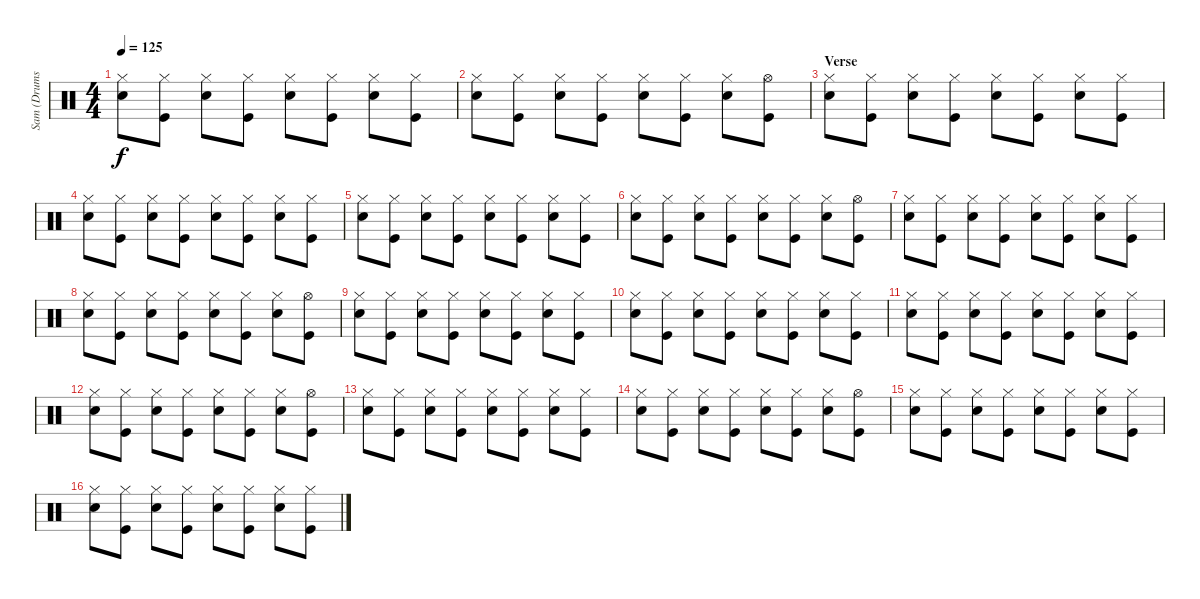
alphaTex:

\track ("Sam (Drums)" "Sam (Drums") {instrument percussion}
\staff {score}
\articulation defaults
\ts (4 4)
\tempo 125
\clef neutral
\ks c
("Hi-Hat (closed)" "Snare (hit) 2").8{dy f} ("Hi-Hat (closed)" "Kick (hit)").8 ("Hi-Hat (closed)" "Snare (hit) 2").8 ("Hi-Hat (closed)" "Kick (hit)").8 ("Hi-Hat (closed)" "Snare (hit) 2").8 ("Hi-Hat (closed)" "Kick (hit)").8 ("Hi-Hat (closed)" "Snare (hit) 2").8 ("Hi-Hat (closed)" "Kick (hit)").8 |
("Hi-Hat (closed)" "Snare (hit) 2").8 ("Hi-Hat (closed)" "Kick (hit)").8 ("Hi-Hat (closed)" "Snare (hit) 2").8 ("Hi-Hat (closed)" "Kick (hit)").8 ("Hi-Hat (closed)" "Snare (hit) 2").8 ("Hi-Hat (closed)" "Kick (hit)").8 ("Hi-Hat (closed)" "Snare (hit) 2").8 ("Hi-Hat (open)" "Kick (hit)").8 |
\section ("" "Verse")
("Hi-Hat (closed)" "Snare (hit) 2").8 ("Hi-Hat (closed)" "Kick (hit)").8 ("Hi-Hat (closed)" "Snare (hit) 2").8 ("Hi-Hat (closed)" "Kick (hit)").8 ("Hi-Hat (closed)" "Snare (hit) 2").8 ("Hi-Hat (closed)" "Kick (hit)").8 ("Hi-Hat (closed)" "Snare (hit) 2").8 ("Hi-Hat (closed)" "Kick (hit)").8 |
("Hi-Hat (closed)" "Snare (hit) 2").8 ("Hi-Hat (closed)" "Kick (hit)").8 ("Hi-Hat (closed)" "Snare (hit) 2").8 ("Hi-Hat (closed)" "Kick (hit)").8 ("Hi-Hat (closed)" "Snare (hit) 2").8 ("Hi-Hat (closed)" "Kick (hit)").8 ("Hi-Hat (closed)" "Snare (hit) 2").8 ("Hi-Hat (closed)" "Kick (hit)").8 |
("Hi-Hat (closed)" "Snare (hit) 2").8 ("Hi-Hat (closed)" "Kick (hit)").8 ("Hi-Hat (closed)" "Snare (hit) 2").8 ("Hi-Hat (closed)" "Kick (hit)").8 ("Hi-Hat (closed)" "Snare (hit) 2").8 ("Hi-Hat (closed)" "Kick (hit)").8 ("Hi-Hat (closed)" "Snare (hit) 2").8 ("Hi-Hat (closed)" "Kick (hit)").8 |
("Hi-Hat (closed)" "Snare (hit) 2").8 ("Hi-Hat (closed)" "Kick (hit)").8 ("Hi-Hat (closed)" "Snare (hit) 2").8 ("Hi-Hat (closed)" "Kick (hit)").8 ("Hi-Hat (closed)" "Snare (hit) 2").8 ("Hi-Hat (closed)" "Kick (hit)").8 ("Hi-Hat (closed)" "Snare (hit) 2").8 ("Hi-Hat (open)" "Kick (hit)").8 |
("Hi-Hat (closed)" "Snare (hit) 2").8 ("Hi-Hat (closed)" "Kick (hit)").8 ("Hi-Hat (closed)" "Snare (hit) 2").8 ("Hi-Hat (closed)" "Kick (hit)").8 ("Hi-Hat (closed)" "Snare (hit) 2").8 ("Hi-Hat (closed)" "Kick (hit)").8 ("Hi-Hat (closed)" "Snare (hit) 2").8 ("Hi-Hat (closed)" "Kick (hit)").8 |
("Hi-Hat (closed)" "Snare (hit) 2").8 ("Hi-Hat (closed)" "Kick (hit)").8 ("Hi-Hat (closed)" "Snare (hit) 2").8 ("Hi-Hat (closed)" "Kick (hit)").8 ("Hi-Hat (closed)" "Snare (hit) 2").8 ("Hi-Hat (closed)" "Kick (hit)").8 ("Hi-Hat (closed)" "Snare (hit) 2").8 ("Hi-Hat (open)" "Kick (hit)").8 |
("Hi-Hat (closed)" "Snare (hit) 2").8 ("Hi-Hat (closed)" "Kick (hit)").8 ("Hi-Hat (closed)" "Snare (hit) 2").8 ("Hi-Hat (closed)" "Kick (hit)").8 ("Hi-Hat (closed)" "Snare (hit) 2").8 ("Hi-Hat (closed)" "Kick (hit)").8 ("Hi-Hat (closed)" "Snare (hit) 2").8 ("Hi-Hat (closed)" "Kick (hit)").8 |
("Hi-Hat (closed)" "Snare (hit) 2").8 ("Hi-Hat (closed)" "Kick (hit)").8 ("Hi-Hat (closed)" "Snare (hit) 2").8 ("Hi-Hat (closed)" "Kick (hit)").8 ("Hi-Hat (closed)" "Snare (hit) 2").8 ("Hi-Hat (closed)" "Kick (hit)").8 ("Hi-Hat (closed)" "Snare (hit) 2").8 ("Hi-Hat (closed)" "Kick (hit)").8 |
("Hi-Hat (closed)" "Snare (hit) 2").8 ("Hi-Hat (closed)" "Kick (hit)").8 ("Hi-Hat (closed)" "Snare (hit) 2").8 ("Hi-Hat (closed)" "Kick (hit)").8 ("Hi-Hat (closed)" "Snare (hit) 2").8 ("Hi-Hat (closed)" "Kick (hit)").8 ("Hi-Hat (closed)" "Snare (hit) 2").8 ("Hi-Hat (closed)" "Kick (hit)").8 |
("Hi-Hat (closed)" "Snare (hit) 2").8 ("Hi-Hat (closed)" "Kick (hit)").8 ("Hi-Hat (closed)" "Snare (hit) 2").8 ("Hi-Hat (closed)" "Kick (hit)").8 ("Hi-Hat (closed)" "Snare (hit) 2").8 ("Hi-Hat (closed)" "Kick (hit)").8 ("Hi-Hat (closed)" "Snare (hit) 2").8 ("Hi-Hat (open)" "Kick (hit)").8 |
("Hi-Hat (closed)" "Snare (hit) 2").8 ("Hi-Hat (closed)" "Kick (hit)").8 ("Hi-Hat (closed)" "Snare (hit) 2").8 ("Hi-Hat (closed)" "Kick (hit)").8 ("Hi-Hat (closed)" "Snare (hit) 2").8 ("Hi-Hat (closed)" "Kick (hit)").8 ("Hi-Hat (closed)" "Snare (hit) 2").8 ("Hi-Hat (closed)" "Kick (hit)").8 |
("Hi-Hat (closed)" "Snare (hit) 2").8 ("Hi-Hat (closed)" "Kick (hit)").8 ("Hi-Hat (closed)" "Snare (hit) 2").8 ("Hi-Hat (closed)" "Kick (hit)").8 ("Hi-Hat (closed)" "Snare (hit) 2").8 ("Hi-Hat (closed)" "Kick (hit)").8 ("Hi-Hat (closed)" "Snare (hit) 2").8 ("Hi-Hat (open)" "Kick (hit)").8 |
("Hi-Hat (closed)" "Snare (hit) 2").8 ("Hi-Hat (closed)" "Kick (hit)").8 ("Hi-Hat (closed)" "Snare (hit) 2").8 ("Hi-Hat (closed)" "Kick (hit)").8 ("Hi-Hat (closed)" "Snare (hit) 2").8 ("Hi-Hat (closed)" "Kick (hit)").8 ("Hi-Hat (closed)" "Snare (hit) 2").8 ("Hi-Hat (closed)" "Kick (hit)").8 |
("Hi-Hat (closed)" "Snare (hit) 2").8 ("Hi-Hat (closed)" "Kick (hit)").8 ("Hi-Hat (closed)" "Snare (hit) 2").8 ("Hi-Hat (closed)" "Kick (hit)").8 ("Hi-Hat (closed)" "Snare (hit) 2").8 ("Hi-Hat (closed)" "Kick (hit)").8 ("Hi-Hat (closed)" "Snare (hit) 2").8 ("Hi-Hat (closed)" "Kick (hit)").8
